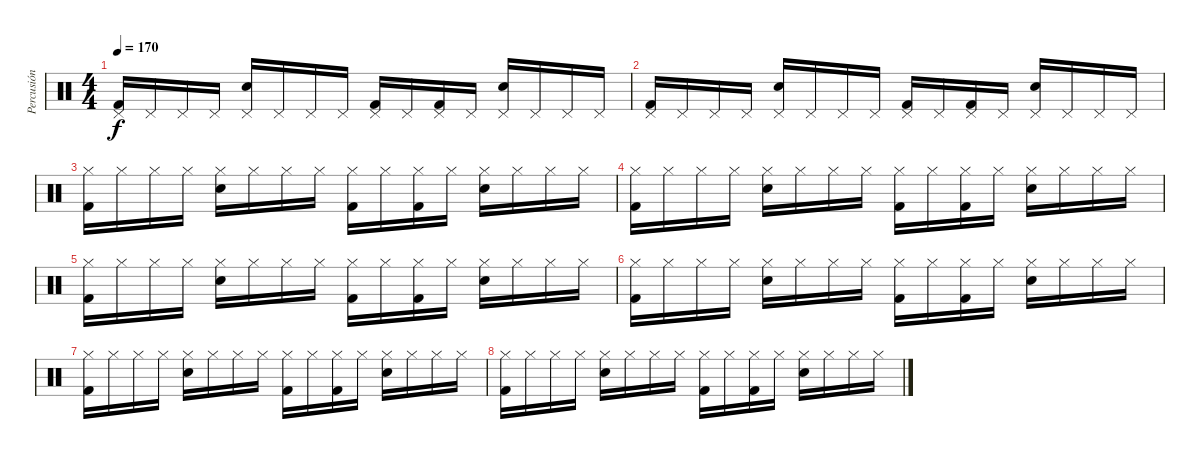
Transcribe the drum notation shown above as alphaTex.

\track ("Percusión" "Percusión") {instrument percussion}
\staff {score}
\articulation defaults
\ts (4 4)
\tempo 170
\clef neutral
\ks c
("Pedal Hi-Hat (hit)" "Kick (hit) 2").16{dy f} "Pedal Hi-Hat (hit)".16 "Pedal Hi-Hat (hit)".16 "Pedal Hi-Hat (hit)".16 ("Pedal Hi-Hat (hit)" "Electric Snare (hit)").16 "Pedal Hi-Hat (hit)".16 "Pedal Hi-Hat (hit)".16 "Pedal Hi-Hat (hit)".16 ("Pedal Hi-Hat (hit)" "Kick (hit) 2").16 "Pedal Hi-Hat (hit)".16 ("Pedal Hi-Hat (hit)" "Kick (hit) 2").16 "Pedal Hi-Hat (hit)".16 ("Pedal Hi-Hat (hit)" "Electric Snare (hit)").16 "Pedal Hi-Hat (hit)".16 "Pedal Hi-Hat (hit)".16 "Pedal Hi-Hat (hit)".16 |
("Pedal Hi-Hat (hit)" "Kick (hit) 2").16 "Pedal Hi-Hat (hit)".16 "Pedal Hi-Hat (hit)".16 "Pedal Hi-Hat (hit)".16 ("Pedal Hi-Hat (hit)" "Electric Snare (hit)").16 "Pedal Hi-Hat (hit)".16 "Pedal Hi-Hat (hit)".16 "Pedal Hi-Hat (hit)".16 ("Pedal Hi-Hat (hit)" "Kick (hit) 2").16 "Pedal Hi-Hat (hit)".16 ("Pedal Hi-Hat (hit)" "Kick (hit) 2").16 "Pedal Hi-Hat (hit)".16 ("Pedal Hi-Hat (hit)" "Electric Snare (hit)").16 "Pedal Hi-Hat (hit)".16 "Pedal Hi-Hat (hit)".16 "Pedal Hi-Hat (hit)".16 |
("Hi-Hat (closed)" "Kick (hit) 2").16 "Hi-Hat (closed)".16 "Hi-Hat (closed)".16 "Hi-Hat (closed)".16 ("Hi-Hat (closed)" "Electric Snare (hit)").16 "Hi-Hat (closed)".16 "Hi-Hat (closed)".16 "Hi-Hat (closed)".16 ("Hi-Hat (closed)" "Kick (hit) 2").16 "Hi-Hat (closed)".16 ("Hi-Hat (closed)" "Kick (hit) 2").16 "Hi-Hat (closed)".16 ("Hi-Hat (closed)" "Electric Snare (hit)").16 "Hi-Hat (closed)".16 "Hi-Hat (closed)".16 "Hi-Hat (closed)".16 |
("Hi-Hat (closed)" "Kick (hit) 2").16 "Hi-Hat (closed)".16 "Hi-Hat (closed)".16 "Hi-Hat (closed)".16 ("Hi-Hat (closed)" "Electric Snare (hit)").16 "Hi-Hat (closed)".16 "Hi-Hat (closed)".16 "Hi-Hat (closed)".16 ("Hi-Hat (closed)" "Kick (hit) 2").16 "Hi-Hat (closed)".16 ("Hi-Hat (closed)" "Kick (hit) 2").16 "Hi-Hat (closed)".16 ("Hi-Hat (closed)" "Electric Snare (hit)").16 "Hi-Hat (closed)".16 "Hi-Hat (closed)".16 "Hi-Hat (closed)".16 |
("Hi-Hat (closed)" "Kick (hit) 2").16 "Hi-Hat (closed)".16 "Hi-Hat (closed)".16 "Hi-Hat (closed)".16 ("Hi-Hat (closed)" "Electric Snare (hit)").16 "Hi-Hat (closed)".16 "Hi-Hat (closed)".16 "Hi-Hat (closed)".16 ("Hi-Hat (closed)" "Kick (hit) 2").16 "Hi-Hat (closed)".16 ("Hi-Hat (closed)" "Kick (hit) 2").16 "Hi-Hat (closed)".16 ("Hi-Hat (closed)" "Electric Snare (hit)").16 "Hi-Hat (closed)".16 "Hi-Hat (closed)".16 "Hi-Hat (closed)".16 |
("Hi-Hat (closed)" "Kick (hit) 2").16 "Hi-Hat (closed)".16 "Hi-Hat (closed)".16 "Hi-Hat (closed)".16 ("Hi-Hat (closed)" "Electric Snare (hit)").16 "Hi-Hat (closed)".16 "Hi-Hat (closed)".16 "Hi-Hat (closed)".16 ("Hi-Hat (closed)" "Kick (hit) 2").16 "Hi-Hat (closed)".16 ("Hi-Hat (closed)" "Kick (hit) 2").16 "Hi-Hat (closed)".16 ("Hi-Hat (closed)" "Electric Snare (hit)").16 "Hi-Hat (closed)".16 "Hi-Hat (closed)".16 "Hi-Hat (closed)".16 |
("Hi-Hat (closed)" "Kick (hit) 2").16 "Hi-Hat (closed)".16 "Hi-Hat (closed)".16 "Hi-Hat (closed)".16 ("Hi-Hat (closed)" "Electric Snare (hit)").16 "Hi-Hat (closed)".16 "Hi-Hat (closed)".16 "Hi-Hat (closed)".16 ("Hi-Hat (closed)" "Kick (hit) 2").16 "Hi-Hat (closed)".16 ("Hi-Hat (closed)" "Kick (hit) 2").16 "Hi-Hat (closed)".16 ("Hi-Hat (closed)" "Electric Snare (hit)").16 "Hi-Hat (closed)".16 "Hi-Hat (closed)".16 "Hi-Hat (closed)".16 |
("Hi-Hat (closed)" "Kick (hit) 2").16 "Hi-Hat (closed)".16 "Hi-Hat (closed)".16 "Hi-Hat (closed)".16 ("Hi-Hat (closed)" "Electric Snare (hit)").16 "Hi-Hat (closed)".16 "Hi-Hat (closed)".16 "Hi-Hat (closed)".16 ("Hi-Hat (closed)" "Kick (hit) 2").16 "Hi-Hat (closed)".16 ("Hi-Hat (closed)" "Kick (hit) 2").16 "Hi-Hat (closed)".16 ("Hi-Hat (closed)" "Electric Snare (hit)").16 "Hi-Hat (closed)".16 "Hi-Hat (closed)".16 "Hi-Hat (closed)".16
